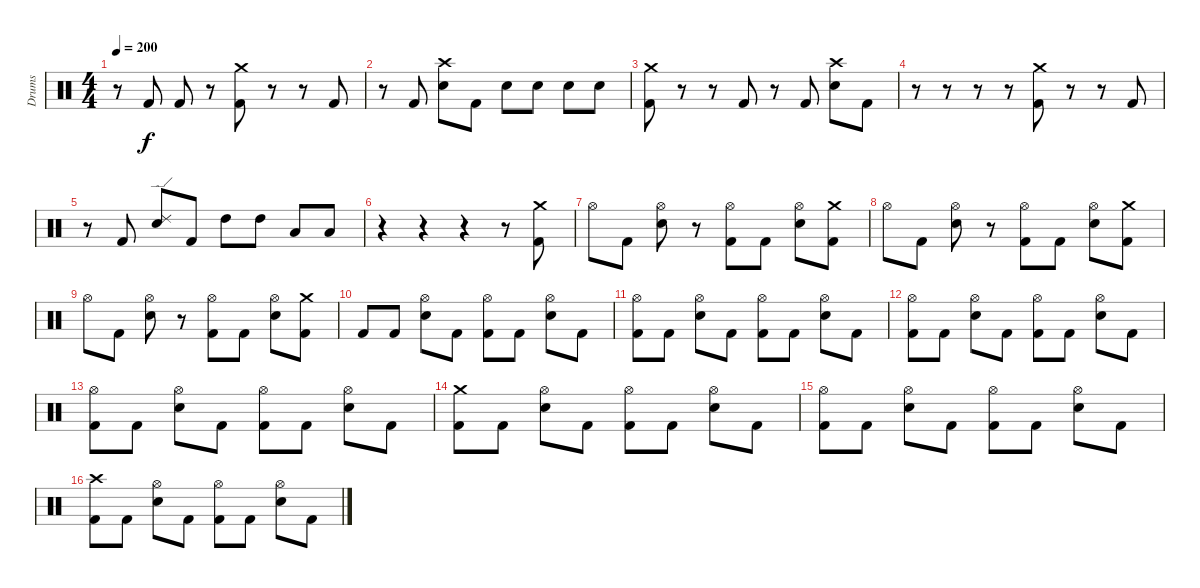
\track ("Drums" "Drums") {instrument percussion}
\staff {score}
\articulation defaults
\ts (4 4)
\tempo 200
\clef neutral
\ks c
r.8{dy f} "Kick (hit) 2".8 "Kick (hit) 2".8 r.8 ("Crash medium (hit)" "Kick (hit) 2").8 r.8 r.8 "Kick (hit) 2".8 |
r.8 "Kick (hit) 2".8 ("Crash high (hit)" "Electric Snare (hit)").8 "Kick (hit) 2".8 "Electric Snare (hit)".8 "Electric Snare (hit)".8 "Electric Snare (hit)".8 "Electric Snare (hit)".8 |
("Crash medium (hit)" "Kick (hit) 2").8 r.8 r.8 "Kick (hit) 2".8 r.8 "Kick (hit) 2".8 ("Crash high (hit)" "Electric Snare (hit)").8 "Kick (hit) 2".8 |
r.8 r.8 r.8 r.8 ("Crash medium (hit)" "Kick (hit) 2").8 r.8 r.8 "Kick (hit) 2".8 |
r.8 "Kick (hit) 2".8 ("Ride (edge) 2" "Electric Snare (hit)").8 "Kick (hit) 2".8 "High Tom (hit)".8 "High Tom (hit)".8 "Low Tom (hit)".8 "Low Tom (hit)".8 |
r.4 r.4 r.4 r.8 ("Crash medium (hit)" "Kick (hit) 2").8 |
"Hi-Hat (open)".8 "Kick (hit) 2".8 ("Hi-Hat (open)" "Electric Snare (hit)").8 r.8 ("Hi-Hat (open)" "Kick (hit) 2").8 "Kick (hit) 2".8 ("Hi-Hat (open)" "Electric Snare (hit)").8 ("Crash medium (hit)" "Kick (hit) 2").8 |
"Hi-Hat (open)".8 "Kick (hit) 2".8 ("Hi-Hat (open)" "Electric Snare (hit)").8 r.8 ("Hi-Hat (open)" "Kick (hit) 2").8 "Kick (hit) 2".8 ("Hi-Hat (open)" "Electric Snare (hit)").8 ("Crash medium (hit)" "Kick (hit) 2").8 |
"Hi-Hat (open)".8 "Kick (hit) 2".8 ("Hi-Hat (open)" "Electric Snare (hit)").8 r.8 ("Hi-Hat (open)" "Kick (hit) 2").8 "Kick (hit) 2".8 ("Hi-Hat (open)" "Electric Snare (hit)").8 ("Crash medium (hit)" "Kick (hit) 2").8 |
"Kick (hit) 2".8 "Kick (hit) 2".8 ("Hi-Hat (open)" "Electric Snare (hit)").8 "Kick (hit) 2".8 ("Hi-Hat (open)" "Kick (hit) 2").8 "Kick (hit) 2".8 ("Hi-Hat (open)" "Electric Snare (hit)").8 "Kick (hit) 2".8 |
("Hi-Hat (open)" "Kick (hit) 2").8 "Kick (hit) 2".8 ("Hi-Hat (open)" "Electric Snare (hit)").8 "Kick (hit) 2".8 ("Hi-Hat (open)" "Kick (hit) 2").8 "Kick (hit) 2".8 ("Hi-Hat (open)" "Electric Snare (hit)").8 "Kick (hit) 2".8 |
("Hi-Hat (open)" "Kick (hit) 2").8 "Kick (hit) 2".8 ("Hi-Hat (open)" "Electric Snare (hit)").8 "Kick (hit) 2".8 ("Hi-Hat (open)" "Kick (hit) 2").8 "Kick (hit) 2".8 ("Hi-Hat (open)" "Electric Snare (hit)").8 "Kick (hit) 2".8 |
("Hi-Hat (open)" "Kick (hit) 2").8 "Kick (hit) 2".8 ("Hi-Hat (open)" "Electric Snare (hit)").8 "Kick (hit) 2".8 ("Hi-Hat (open)" "Kick (hit) 2").8 "Kick (hit) 2".8 ("Hi-Hat (open)" "Electric Snare (hit)").8 "Kick (hit) 2".8 |
("Crash medium (hit)" "Kick (hit) 2").8 "Kick (hit) 2".8 ("Hi-Hat (open)" "Electric Snare (hit)").8 "Kick (hit) 2".8 ("Hi-Hat (open)" "Kick (hit) 2").8 "Kick (hit) 2".8 ("Hi-Hat (open)" "Electric Snare (hit)").8 "Kick (hit) 2".8 |
("Hi-Hat (open)" "Kick (hit) 2").8 "Kick (hit) 2".8 ("Hi-Hat (open)" "Electric Snare (hit)").8 "Kick (hit) 2".8 ("Hi-Hat (open)" "Kick (hit) 2").8 "Kick (hit) 2".8 ("Hi-Hat (open)" "Electric Snare (hit)").8 "Kick (hit) 2".8 |
("Crash high (hit)" "Kick (hit) 2").8 "Kick (hit) 2".8 ("Hi-Hat (open)" "Electric Snare (hit)").8 "Kick (hit) 2".8 ("Hi-Hat (open)" "Kick (hit) 2").8 "Kick (hit) 2".8 ("Hi-Hat (open)" "Electric Snare (hit)").8 "Kick (hit) 2".8
